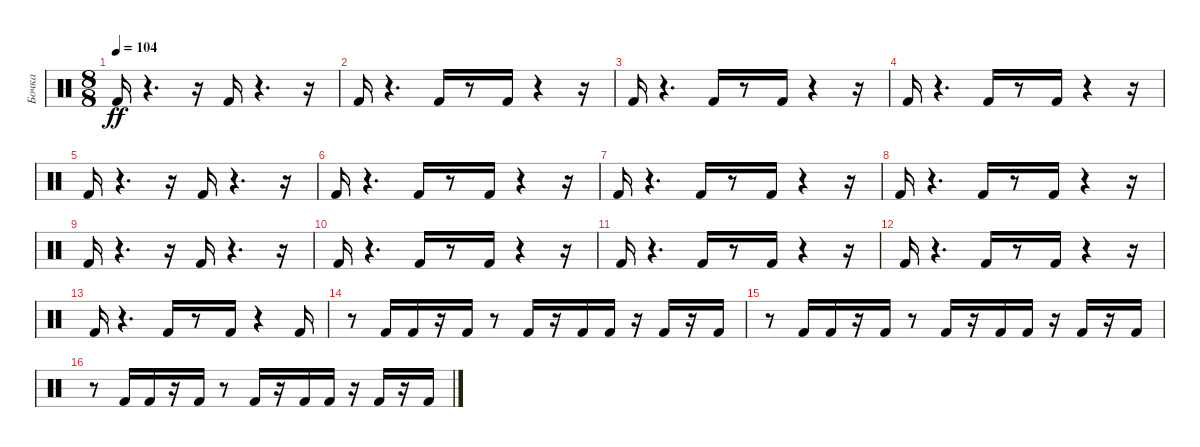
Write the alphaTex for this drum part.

\track ("Бочка" "Бочка") {instrument percussion}
\staff {score}
\articulation defaults
\ts (8 8)
\tempo 104
\clef neutral
\ks c "Kick (hit) 2".16{dy ff}
r.4{d} r.16 "Kick (hit) 2".16 r.4{d} r.16 |
"Kick (hit) 2".16 r.4{d} "Kick (hit) 2".16 r.8 "Kick (hit) 2".16 r.4 r.16 |
"Kick (hit) 2".16 r.4{d} "Kick (hit) 2".16 r.8 "Kick (hit) 2".16 r.4 r.16 |
"Kick (hit) 2".16 r.4{d} "Kick (hit) 2".16 r.8 "Kick (hit) 2".16 r.4 r.16 |
"Kick (hit) 2".16 r.4{d} r.16 "Kick (hit) 2".16 r.4{d} r.16 |
"Kick (hit) 2".16 r.4{d} "Kick (hit) 2".16 r.8 "Kick (hit) 2".16 r.4 r.16 |
"Kick (hit) 2".16 r.4{d} "Kick (hit) 2".16 r.8 "Kick (hit) 2".16 r.4 r.16 |
"Kick (hit) 2".16 r.4{d} "Kick (hit) 2".16 r.8 "Kick (hit) 2".16 r.4 r.16 |
"Kick (hit) 2".16 r.4{d} r.16 "Kick (hit) 2".16 r.4{d} r.16 |
"Kick (hit) 2".16 r.4{d} "Kick (hit) 2".16 r.8 "Kick (hit) 2".16 r.4 r.16 |
"Kick (hit) 2".16 r.4{d} "Kick (hit) 2".16 r.8 "Kick (hit) 2".16 r.4 r.16 |
"Kick (hit) 2".16 r.4{d} "Kick (hit) 2".16 r.8 "Kick (hit) 2".16 r.4 r.16 |
"Kick (hit) 2".16 r.4{d} "Kick (hit) 2".16 r.8 "Kick (hit) 2".16 r.4 "Kick (hit) 2".16 |
r.8 "Kick (hit) 2".16 "Kick (hit) 2".16 r.16 "Kick (hit) 2".16 r.8 "Kick (hit) 2".16 r.16 "Kick (hit) 2".16 "Kick (hit) 2".16 r.16 "Kick (hit) 2".16 r.16 "Kick (hit) 2".16 |
r.8 "Kick (hit) 2".16 "Kick (hit) 2".16 r.16 "Kick (hit) 2".16 r.8 "Kick (hit) 2".16 r.16 "Kick (hit) 2".16 "Kick (hit) 2".16 r.16 "Kick (hit) 2".16 r.16 "Kick (hit) 2".16 |
r.8 "Kick (hit) 2".16 "Kick (hit) 2".16 r.16 "Kick (hit) 2".16 r.8 "Kick (hit) 2".16 r.16 "Kick (hit) 2".16 "Kick (hit) 2".16 r.16 "Kick (hit) 2".16 r.16 "Kick (hit) 2".16
